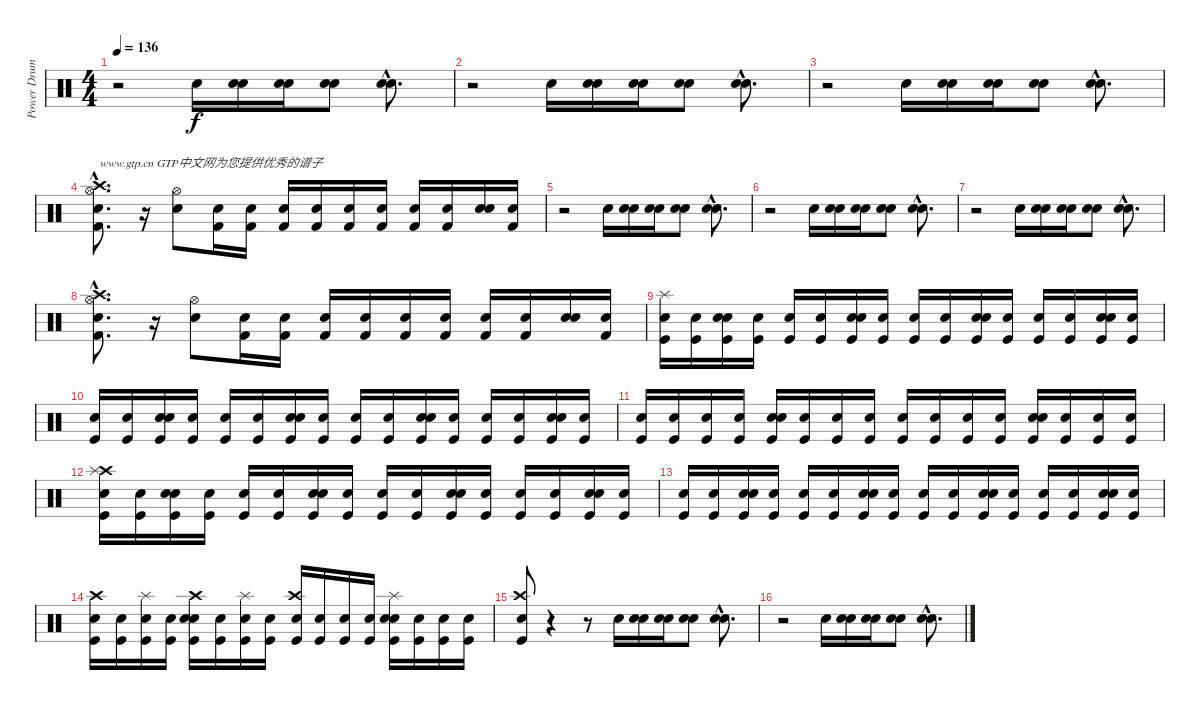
\track ("Power Drums" "Power Drum") {instrument percussion}
\staff {score}
\articulation defaults
\ts (4 4)
\tempo 136
\clef neutral
\ks c
r.2{dy f} "Snare (hit) 2".16 ("Snare (hit)" "Snare (hit) 2").16 ("Snare (hit)" "Snare (hit) 2").16 ("Snare (hit)" "Snare (hit) 2").8 ("Snare (hit)"{hac} "Snare (hit) 2"{hac}).8{d} |
r.2 "Snare (hit) 2".16 ("Snare (hit)" "Snare (hit) 2").16 ("Snare (hit)" "Snare (hit) 2").16 ("Snare (hit)" "Snare (hit) 2").8 ("Snare (hit)"{hac} "Snare (hit) 2"{hac}).8{d} |
r.2 "Snare (hit) 2".16 ("Snare (hit)" "Snare (hit) 2").16 ("Snare (hit)" "Snare (hit) 2").16 ("Snare (hit)" "Snare (hit) 2").8 ("Snare (hit)"{hac} "Snare (hit) 2"{hac}).8{d} |
("Snare (hit)"{hac} "Kick (hit) 2"{hac} "Hi-Hat (open)"{hac} "Crash high (hit)"{hac}).8{d txt "www.gtp.cn GTP中文网为您提供优秀的谱子"} r.16 ("Snare (hit) 2" "Hi-Hat (open)").8 ("Snare (hit)" "Kick (hit) 2").16 ("Snare (hit)" "Kick (hit) 2").16 ("Snare (hit)" "Kick (hit) 2").16 ("Snare (hit)" "Kick (hit) 2").16 ("Snare (hit)" "Kick (hit) 2").16 ("Snare (hit)" "Kick (hit) 2").16 ("Snare (hit)" "Kick (hit) 2").16 ("Snare (hit)" "Kick (hit) 2").16 ("Snare (hit)" "Snare (hit) 2").16 ("Snare (hit)" "Kick (hit) 2").16 |
r.2 "Snare (hit) 2".16 ("Snare (hit)" "Snare (hit) 2").16 ("Snare (hit)" "Snare (hit) 2").16 ("Snare (hit)" "Snare (hit) 2").8 ("Snare (hit)"{hac} "Snare (hit) 2"{hac}).8{d} |
r.2 "Snare (hit) 2".16 ("Snare (hit)" "Snare (hit) 2").16 ("Snare (hit)" "Snare (hit) 2").16 ("Snare (hit)" "Snare (hit) 2").8 ("Snare (hit)"{hac} "Snare (hit) 2"{hac}).8{d} |
r.2 "Snare (hit) 2".16 ("Snare (hit)" "Snare (hit) 2").16 ("Snare (hit)" "Snare (hit) 2").16 ("Snare (hit)" "Snare (hit) 2").8 ("Snare (hit)"{hac} "Snare (hit) 2"{hac}).8{d} |
("Snare (hit)"{hac} "Kick (hit) 2"{hac} "Hi-Hat (open)"{hac} "Crash high (hit)"{hac}).8{d} r.16 ("Snare (hit) 2" "Hi-Hat (open)").8 ("Snare (hit)" "Kick (hit) 2").16 ("Snare (hit)" "Kick (hit) 2").16 ("Snare (hit)" "Kick (hit) 2").16 ("Snare (hit)" "Kick (hit) 2").16 ("Snare (hit)" "Kick (hit) 2").16 ("Snare (hit)" "Kick (hit) 2").16 ("Snare (hit)" "Kick (hit) 2").16 ("Snare (hit)" "Kick (hit) 2").16 ("Snare (hit)" "Snare (hit) 2").16 ("Snare (hit)" "Kick (hit) 2").16 |
("Snare (hit)" "Kick (hit)" "Splash (hit)").16 ("Snare (hit)" "Kick (hit)").16 ("Snare (hit)" "Kick (hit)" "Snare (hit) 2").16 ("Snare (hit)" "Kick (hit)").16 ("Snare (hit)" "Kick (hit)").16 ("Snare (hit)" "Kick (hit)").16 ("Snare (hit)" "Kick (hit)" "Snare (hit) 2").16 ("Snare (hit)" "Kick (hit)").16 ("Snare (hit)" "Kick (hit)").16 ("Snare (hit)" "Kick (hit)").16 ("Snare (hit)" "Kick (hit)" "Snare (hit) 2").16 ("Snare (hit)" "Kick (hit)").16 ("Snare (hit)" "Kick (hit)").16 ("Snare (hit)" "Kick (hit)").16 ("Snare (hit)" "Kick (hit)" "Snare (hit) 2").16 ("Snare (hit)" "Kick (hit)").16 |
("Snare (hit)" "Kick (hit)").16 ("Snare (hit)" "Kick (hit)").16 ("Snare (hit)" "Kick (hit)" "Snare (hit) 2").16 ("Snare (hit)" "Kick (hit)").16 ("Snare (hit)" "Kick (hit)").16 ("Snare (hit)" "Kick (hit)").16 ("Snare (hit)" "Kick (hit)" "Snare (hit) 2").16 ("Snare (hit)" "Kick (hit)").16 ("Snare (hit)" "Kick (hit)").16 ("Snare (hit)" "Kick (hit)").16 ("Snare (hit)" "Kick (hit)" "Snare (hit) 2").16 ("Snare (hit)" "Kick (hit)").16 ("Snare (hit)" "Kick (hit)").16 ("Snare (hit)" "Kick (hit)").16 ("Snare (hit)" "Kick (hit)" "Snare (hit) 2").16 ("Snare (hit)" "Kick (hit)").16 |
("Snare (hit)" "Kick (hit)").16 ("Snare (hit)" "Kick (hit)").16 ("Snare (hit)" "Kick (hit)").16 ("Snare (hit)" "Kick (hit)").16 ("Snare (hit)" "Kick (hit)" "Snare (hit) 2").16 ("Snare (hit)" "Kick (hit)").16 ("Snare (hit)" "Kick (hit)").16 ("Snare (hit)" "Kick (hit)").16 ("Snare (hit)" "Kick (hit)").16 ("Snare (hit)" "Kick (hit)").16 ("Snare (hit)" "Kick (hit)").16 ("Snare (hit)" "Kick (hit)").16 ("Snare (hit)" "Kick (hit)" "Snare (hit) 2").16 ("Snare (hit)" "Kick (hit)").16 ("Snare (hit)" "Kick (hit)").16 ("Snare (hit)" "Kick (hit)").16 |
("Snare (hit)" "Kick (hit)" "Crash high (hit)" "Splash (hit)").16 ("Snare (hit)" "Kick (hit)").16 ("Snare (hit)" "Kick (hit)" "Snare (hit) 2").16 ("Snare (hit)" "Kick (hit)").16 ("Snare (hit)" "Kick (hit)").16 ("Snare (hit)" "Kick (hit)").16 ("Snare (hit)" "Kick (hit)" "Snare (hit) 2").16 ("Snare (hit)" "Kick (hit)").16 ("Snare (hit)" "Kick (hit)").16 ("Snare (hit)" "Kick (hit)").16 ("Snare (hit)" "Kick (hit)" "Snare (hit) 2").16 ("Snare (hit)" "Kick (hit)").16 ("Snare (hit)" "Kick (hit)").16 ("Snare (hit)" "Kick (hit)").16 ("Snare (hit)" "Kick (hit)" "Snare (hit) 2").16 ("Snare (hit)" "Kick (hit)").16 |
("Snare (hit)" "Kick (hit)").16 ("Snare (hit)" "Kick (hit)").16 ("Snare (hit)" "Kick (hit)" "Snare (hit) 2").16 ("Snare (hit)" "Kick (hit)").16 ("Snare (hit)" "Kick (hit)").16 ("Snare (hit)" "Kick (hit)").16 ("Snare (hit)" "Kick (hit)" "Snare (hit) 2").16 ("Snare (hit)" "Kick (hit)").16 ("Snare (hit)" "Kick (hit)").16 ("Snare (hit)" "Kick (hit)").16 ("Snare (hit)" "Kick (hit)" "Snare (hit) 2").16 ("Snare (hit)" "Kick (hit)").16 ("Snare (hit)" "Kick (hit)").16 ("Snare (hit)" "Kick (hit)").16 ("Snare (hit)" "Kick (hit)" "Snare (hit) 2").16 ("Snare (hit)" "Kick (hit)").16 |
("Snare (hit)" "Kick (hit)" "Crash high (hit)").16 ("Snare (hit)" "Kick (hit)").16 ("Snare (hit)" "Kick (hit)" "Splash (hit)").16 ("Snare (hit)" "Kick (hit)").16 ("Snare (hit)" "Kick (hit)" "Snare (hit) 2" "Crash high (hit)").16 ("Snare (hit)" "Kick (hit)").16 ("Snare (hit)" "Kick (hit)" "Splash (hit)").16 ("Snare (hit)" "Kick (hit)").16 ("Snare (hit)" "Kick (hit)" "Crash high (hit)").16 ("Snare (hit)" "Kick (hit)").16 ("Snare (hit)" "Kick (hit)").16 ("Snare (hit)" "Kick (hit)").16 ("Snare (hit)" "Kick (hit)" "Snare (hit) 2" "Splash (hit)").16 ("Snare (hit)" "Kick (hit)").16 ("Snare (hit)" "Kick (hit)").16 ("Snare (hit)" "Kick (hit)").16 |
("Snare (hit)" "Kick (hit)" "Crash high (hit)").8 r.4 r.8 "Snare (hit) 2".16 ("Snare (hit)" "Snare (hit) 2").16 ("Snare (hit)" "Snare (hit) 2").16 ("Snare (hit)" "Snare (hit) 2").8 ("Snare (hit)"{hac} "Snare (hit) 2"{hac}).8{d} |
r.2 "Snare (hit) 2".16 ("Snare (hit)" "Snare (hit) 2").16 ("Snare (hit)" "Snare (hit) 2").16 ("Snare (hit)" "Snare (hit) 2").8 ("Snare (hit)"{hac} "Snare (hit) 2"{hac}).8{d}
